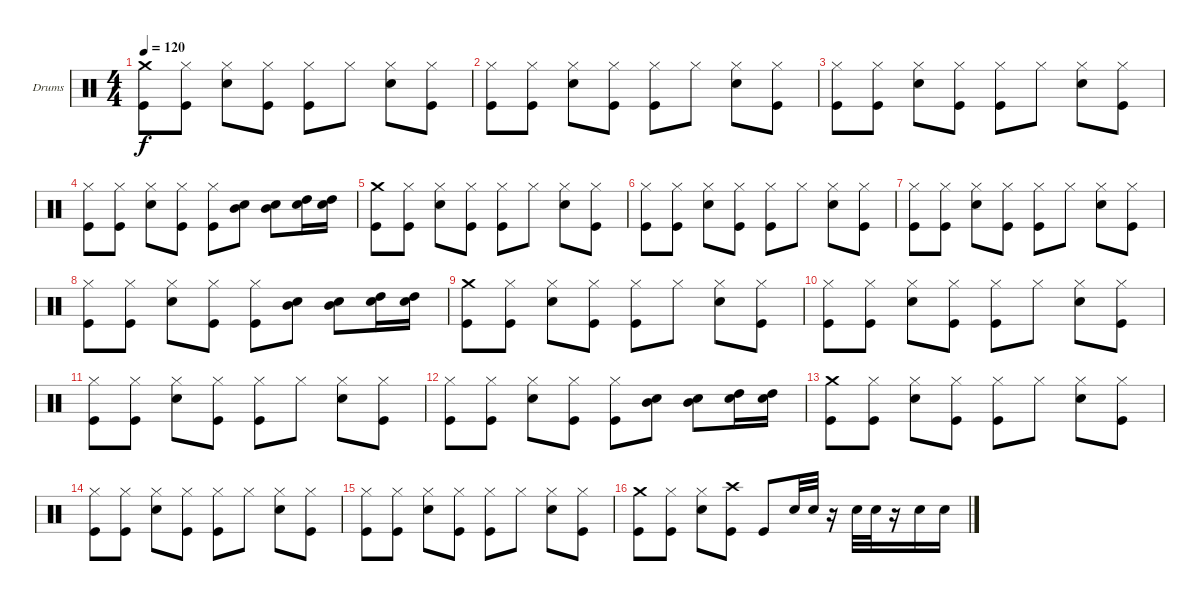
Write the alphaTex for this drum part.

\defaultSystemsLayout 4
\bracketExtendMode groupsimilarinstruments
\firstSystemTrackNameOrientation horizontal
\otherSystemsTrackNameOrientation horizontal
\track ("Stefan Schwarzmann" "Drums") {instrument percussion}
\staff {score}
\articulation defaults
\ts (4 4)
\tempo 120
\clef neutral
\ks c
("Crash medium (hit)" "Kick (hit)").8{dy f} ("Hi-Hat (closed)" "Kick (hit)").8 ("Hi-Hat (closed)" "Snare (hit) 2").8 ("Hi-Hat (closed)" "Kick (hit)").8 ("Hi-Hat (closed)" "Kick (hit)").8 "Hi-Hat (closed)".8 ("Hi-Hat (closed)" "Snare (hit) 2").8 ("Hi-Hat (closed)" "Kick (hit)").8 |
("Hi-Hat (closed)" "Kick (hit)").8 ("Hi-Hat (closed)" "Kick (hit)").8 ("Hi-Hat (closed)" "Snare (hit) 2").8 ("Hi-Hat (closed)" "Kick (hit)").8 ("Hi-Hat (closed)" "Kick (hit)").8 "Hi-Hat (closed)".8 ("Hi-Hat (closed)" "Snare (hit) 2").8 ("Hi-Hat (closed)" "Kick (hit)").8 |
("Hi-Hat (closed)" "Kick (hit)").8 ("Hi-Hat (closed)" "Kick (hit)").8 ("Hi-Hat (closed)" "Snare (hit) 2").8 ("Hi-Hat (closed)" "Kick (hit)").8 ("Hi-Hat (closed)" "Kick (hit)").8 "Hi-Hat (closed)".8 ("Hi-Hat (closed)" "Snare (hit) 2").8 ("Hi-Hat (closed)" "Kick (hit)").8 |
("Hi-Hat (closed)" "Kick (hit)").8 ("Hi-Hat (closed)" "Kick (hit)").8 ("Hi-Hat (closed)" "Snare (hit) 2").8 ("Hi-Hat (closed)" "Kick (hit)").8 ("Hi-Hat (closed)" "Kick (hit)").8 ("Mid Tom (hit)" "Snare (hit) 2").8 ("Mid Tom (hit)" "Snare (hit) 2").8 ("High Tom (hit)" "Snare (hit) 2").16 ("High Tom (hit)" "Snare (hit) 2").16 |
("Crash medium (hit)" "Kick (hit)").8 ("Hi-Hat (closed)" "Kick (hit)").8 ("Hi-Hat (closed)" "Snare (hit) 2").8 ("Hi-Hat (closed)" "Kick (hit)").8 ("Hi-Hat (closed)" "Kick (hit)").8 "Hi-Hat (closed)".8 ("Hi-Hat (closed)" "Snare (hit) 2").8 ("Hi-Hat (closed)" "Kick (hit)").8 |
("Hi-Hat (closed)" "Kick (hit)").8 ("Hi-Hat (closed)" "Kick (hit)").8 ("Hi-Hat (closed)" "Snare (hit) 2").8 ("Hi-Hat (closed)" "Kick (hit)").8 ("Hi-Hat (closed)" "Kick (hit)").8 "Hi-Hat (closed)".8 ("Hi-Hat (closed)" "Snare (hit) 2").8 ("Hi-Hat (closed)" "Kick (hit)").8 |
("Hi-Hat (closed)" "Kick (hit)").8 ("Hi-Hat (closed)" "Kick (hit)").8 ("Hi-Hat (closed)" "Snare (hit) 2").8 ("Hi-Hat (closed)" "Kick (hit)").8 ("Hi-Hat (closed)" "Kick (hit)").8 "Hi-Hat (closed)".8 ("Hi-Hat (closed)" "Snare (hit) 2").8 ("Hi-Hat (closed)" "Kick (hit)").8 |
("Hi-Hat (closed)" "Kick (hit)").8 ("Hi-Hat (closed)" "Kick (hit)").8 ("Hi-Hat (closed)" "Snare (hit) 2").8 ("Hi-Hat (closed)" "Kick (hit)").8 ("Hi-Hat (closed)" "Kick (hit)").8 ("Mid Tom (hit)" "Snare (hit) 2").8 ("Mid Tom (hit)" "Snare (hit) 2").8 ("High Tom (hit)" "Snare (hit) 2").16 ("High Tom (hit)" "Snare (hit) 2").16 |
("Crash medium (hit)" "Kick (hit)").8 ("Hi-Hat (closed)" "Kick (hit)").8 ("Hi-Hat (closed)" "Snare (hit) 2").8 ("Hi-Hat (closed)" "Kick (hit)").8 ("Hi-Hat (closed)" "Kick (hit)").8 "Hi-Hat (closed)".8 ("Hi-Hat (closed)" "Snare (hit) 2").8 ("Hi-Hat (closed)" "Kick (hit)").8 |
("Hi-Hat (closed)" "Kick (hit)").8 ("Hi-Hat (closed)" "Kick (hit)").8 ("Hi-Hat (closed)" "Snare (hit) 2").8 ("Hi-Hat (closed)" "Kick (hit)").8 ("Hi-Hat (closed)" "Kick (hit)").8 "Hi-Hat (closed)".8 ("Hi-Hat (closed)" "Snare (hit) 2").8 ("Hi-Hat (closed)" "Kick (hit)").8 |
("Hi-Hat (closed)" "Kick (hit)").8 ("Hi-Hat (closed)" "Kick (hit)").8 ("Hi-Hat (closed)" "Snare (hit) 2").8 ("Hi-Hat (closed)" "Kick (hit)").8 ("Hi-Hat (closed)" "Kick (hit)").8 "Hi-Hat (closed)".8 ("Hi-Hat (closed)" "Snare (hit) 2").8 ("Hi-Hat (closed)" "Kick (hit)").8 |
("Hi-Hat (closed)" "Kick (hit)").8 ("Hi-Hat (closed)" "Kick (hit)").8 ("Hi-Hat (closed)" "Snare (hit) 2").8 ("Hi-Hat (closed)" "Kick (hit)").8 ("Hi-Hat (closed)" "Kick (hit)").8 ("Mid Tom (hit)" "Snare (hit) 2").8 ("Mid Tom (hit)" "Snare (hit) 2").8 ("High Tom (hit)" "Snare (hit) 2").16 ("High Tom (hit)" "Snare (hit) 2").16 |
("Crash medium (hit)" "Kick (hit)").8 ("Hi-Hat (closed)" "Kick (hit)").8 ("Hi-Hat (closed)" "Snare (hit) 2").8 ("Hi-Hat (closed)" "Kick (hit)").8 ("Hi-Hat (closed)" "Kick (hit)").8 "Hi-Hat (closed)".8 ("Hi-Hat (closed)" "Snare (hit) 2").8 ("Hi-Hat (closed)" "Kick (hit)").8 |
("Hi-Hat (closed)" "Kick (hit)").8 ("Hi-Hat (closed)" "Kick (hit)").8 ("Hi-Hat (closed)" "Snare (hit) 2").8 ("Hi-Hat (closed)" "Kick (hit)").8 ("Hi-Hat (closed)" "Kick (hit)").8 "Hi-Hat (closed)".8 ("Hi-Hat (closed)" "Snare (hit) 2").8 ("Hi-Hat (closed)" "Kick (hit)").8 |
("Hi-Hat (closed)" "Kick (hit)").8 ("Hi-Hat (closed)" "Kick (hit)").8 ("Hi-Hat (closed)" "Snare (hit) 2").8 ("Hi-Hat (closed)" "Kick (hit)").8 ("Hi-Hat (closed)" "Kick (hit)").8 "Hi-Hat (closed)".8 ("Hi-Hat (closed)" "Snare (hit) 2").8 ("Hi-Hat (closed)" "Kick (hit)").8 |
("Crash medium (hit)" "Kick (hit)").8 ("Hi-Hat (closed)" "Kick (hit)").8 ("Hi-Hat (closed)" "Snare (hit) 2").8 ("Kick (hit)" "Crash high (hit)").8 "Kick (hit)".8 "Snare (hit) 2".32 "Snare (hit) 2".32 r.16 "Snare (hit) 2".32 "Snare (hit) 2".32 r.16 "Snare (hit) 2".16 "Snare (hit) 2".16
